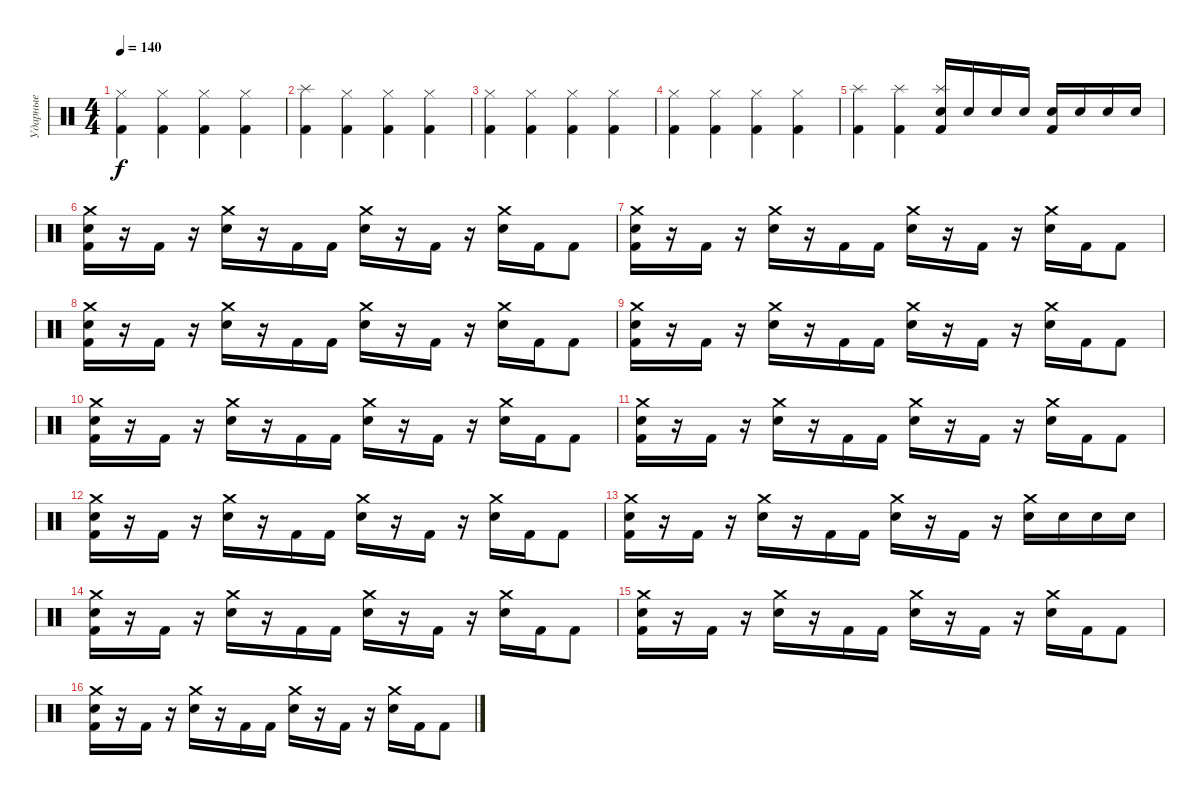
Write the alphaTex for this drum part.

\track ("Ударные" "Ударные") {instrument percussion}
\staff {score}
\articulation defaults
\ts (4 4)
\tempo 140
\clef neutral
\ks c
("Hi-Hat (closed)" "Kick (hit) 2").4{dy f} ("Hi-Hat (closed)" "Kick (hit) 2").4 ("Hi-Hat (closed)" "Kick (hit) 2").4 ("Hi-Hat (closed)" "Kick (hit) 2").4 |
("Splash (hit)" "Kick (hit) 2").4 ("Hi-Hat (closed)" "Kick (hit) 2").4 ("Hi-Hat (closed)" "Kick (hit) 2").4 ("Hi-Hat (closed)" "Kick (hit) 2").4 |
("Hi-Hat (closed)" "Kick (hit) 2").4 ("Hi-Hat (closed)" "Kick (hit) 2").4 ("Hi-Hat (closed)" "Kick (hit) 2").4 ("Hi-Hat (closed)" "Kick (hit) 2").4 |
("Hi-Hat (closed)" "Kick (hit) 2").4 ("Hi-Hat (closed)" "Kick (hit) 2").4 ("Hi-Hat (closed)" "Kick (hit) 2").4 ("Hi-Hat (closed)" "Kick (hit) 2").4 |
("Splash (hit)" "Kick (hit) 2").4 ("Splash (hit)" "Kick (hit) 2").4 ("Splash (hit)" "Electric Snare (hit)" "Kick (hit) 2").16 "Electric Snare (hit)".16 "Electric Snare (hit)".16 "Electric Snare (hit)".16 ("Electric Snare (hit)" "Kick (hit) 2").16 "Electric Snare (hit)".16 "Electric Snare (hit)".16 "Electric Snare (hit)".16 |
("Crash medium (hit)" "Electric Snare (hit)" "Kick (hit) 2").16 r.16 "Kick (hit) 2".16 r.16 ("Crash medium (hit)" "Electric Snare (hit)").16 r.16 "Kick (hit) 2".16 "Kick (hit) 2".16 ("Crash medium (hit)" "Electric Snare (hit)").16 r.16 "Kick (hit) 2".16 r.16 ("Crash medium (hit)" "Electric Snare (hit)").16 "Kick (hit) 2".16 "Kick (hit) 2".8 |
("Crash medium (hit)" "Electric Snare (hit)" "Kick (hit) 2").16 r.16 "Kick (hit) 2".16 r.16 ("Crash medium (hit)" "Electric Snare (hit)").16 r.16 "Kick (hit) 2".16 "Kick (hit) 2".16 ("Crash medium (hit)" "Electric Snare (hit)").16 r.16 "Kick (hit) 2".16 r.16 ("Crash medium (hit)" "Electric Snare (hit)").16 "Kick (hit) 2".16 "Kick (hit) 2".8 |
("Crash medium (hit)" "Electric Snare (hit)" "Kick (hit) 2").16 r.16 "Kick (hit) 2".16 r.16 ("Crash medium (hit)" "Electric Snare (hit)").16 r.16 "Kick (hit) 2".16 "Kick (hit) 2".16 ("Crash medium (hit)" "Electric Snare (hit)").16 r.16 "Kick (hit) 2".16 r.16 ("Crash medium (hit)" "Electric Snare (hit)").16 "Kick (hit) 2".16 "Kick (hit) 2".8 |
("Crash medium (hit)" "Electric Snare (hit)" "Kick (hit) 2").16 r.16 "Kick (hit) 2".16 r.16 ("Crash medium (hit)" "Electric Snare (hit)").16 r.16 "Kick (hit) 2".16 "Kick (hit) 2".16 ("Crash medium (hit)" "Electric Snare (hit)").16 r.16 "Kick (hit) 2".16 r.16 ("Crash medium (hit)" "Electric Snare (hit)").16 "Kick (hit) 2".16 "Kick (hit) 2".8 |
("Crash medium (hit)" "Electric Snare (hit)" "Kick (hit) 2").16 r.16 "Kick (hit) 2".16 r.16 ("Crash medium (hit)" "Electric Snare (hit)").16 r.16 "Kick (hit) 2".16 "Kick (hit) 2".16 ("Crash medium (hit)" "Electric Snare (hit)").16 r.16 "Kick (hit) 2".16 r.16 ("Crash medium (hit)" "Electric Snare (hit)").16 "Kick (hit) 2".16 "Kick (hit) 2".8 |
("Crash medium (hit)" "Electric Snare (hit)" "Kick (hit) 2").16 r.16 "Kick (hit) 2".16 r.16 ("Crash medium (hit)" "Electric Snare (hit)").16 r.16 "Kick (hit) 2".16 "Kick (hit) 2".16 ("Crash medium (hit)" "Electric Snare (hit)").16 r.16 "Kick (hit) 2".16 r.16 ("Crash medium (hit)" "Electric Snare (hit)").16 "Kick (hit) 2".16 "Kick (hit) 2".8 |
("Crash medium (hit)" "Electric Snare (hit)" "Kick (hit) 2").16 r.16 "Kick (hit) 2".16 r.16 ("Crash medium (hit)" "Electric Snare (hit)").16 r.16 "Kick (hit) 2".16 "Kick (hit) 2".16 ("Crash medium (hit)" "Electric Snare (hit)").16 r.16 "Kick (hit) 2".16 r.16 ("Crash medium (hit)" "Electric Snare (hit)").16 "Kick (hit) 2".16 "Kick (hit) 2".8 |
("Crash medium (hit)" "Electric Snare (hit)" "Kick (hit) 2").16 r.16 "Kick (hit) 2".16 r.16 ("Crash medium (hit)" "Electric Snare (hit)").16 r.16 "Kick (hit) 2".16 "Kick (hit) 2".16 ("Crash medium (hit)" "Electric Snare (hit)").16 r.16 "Kick (hit) 2".16 r.16 ("Crash medium (hit)" "Electric Snare (hit)").16 "Electric Snare (hit)".16 "Electric Snare (hit)".16 "Electric Snare (hit)".16 |
("Crash medium (hit)" "Electric Snare (hit)" "Kick (hit) 2").16 r.16 "Kick (hit) 2".16 r.16 ("Crash medium (hit)" "Electric Snare (hit)").16 r.16 "Kick (hit) 2".16 "Kick (hit) 2".16 ("Crash medium (hit)" "Electric Snare (hit)").16 r.16 "Kick (hit) 2".16 r.16 ("Crash medium (hit)" "Electric Snare (hit)").16 "Kick (hit) 2".16 "Kick (hit) 2".8 |
("Crash medium (hit)" "Electric Snare (hit)" "Kick (hit) 2").16 r.16 "Kick (hit) 2".16 r.16 ("Crash medium (hit)" "Electric Snare (hit)").16 r.16 "Kick (hit) 2".16 "Kick (hit) 2".16 ("Crash medium (hit)" "Electric Snare (hit)").16 r.16 "Kick (hit) 2".16 r.16 ("Crash medium (hit)" "Electric Snare (hit)").16 "Kick (hit) 2".16 "Kick (hit) 2".8 |
("Crash medium (hit)" "Electric Snare (hit)" "Kick (hit) 2").16 r.16 "Kick (hit) 2".16 r.16 ("Crash medium (hit)" "Electric Snare (hit)").16 r.16 "Kick (hit) 2".16 "Kick (hit) 2".16 ("Crash medium (hit)" "Electric Snare (hit)").16 r.16 "Kick (hit) 2".16 r.16 ("Crash medium (hit)" "Electric Snare (hit)").16 "Kick (hit) 2".16 "Kick (hit) 2".8
